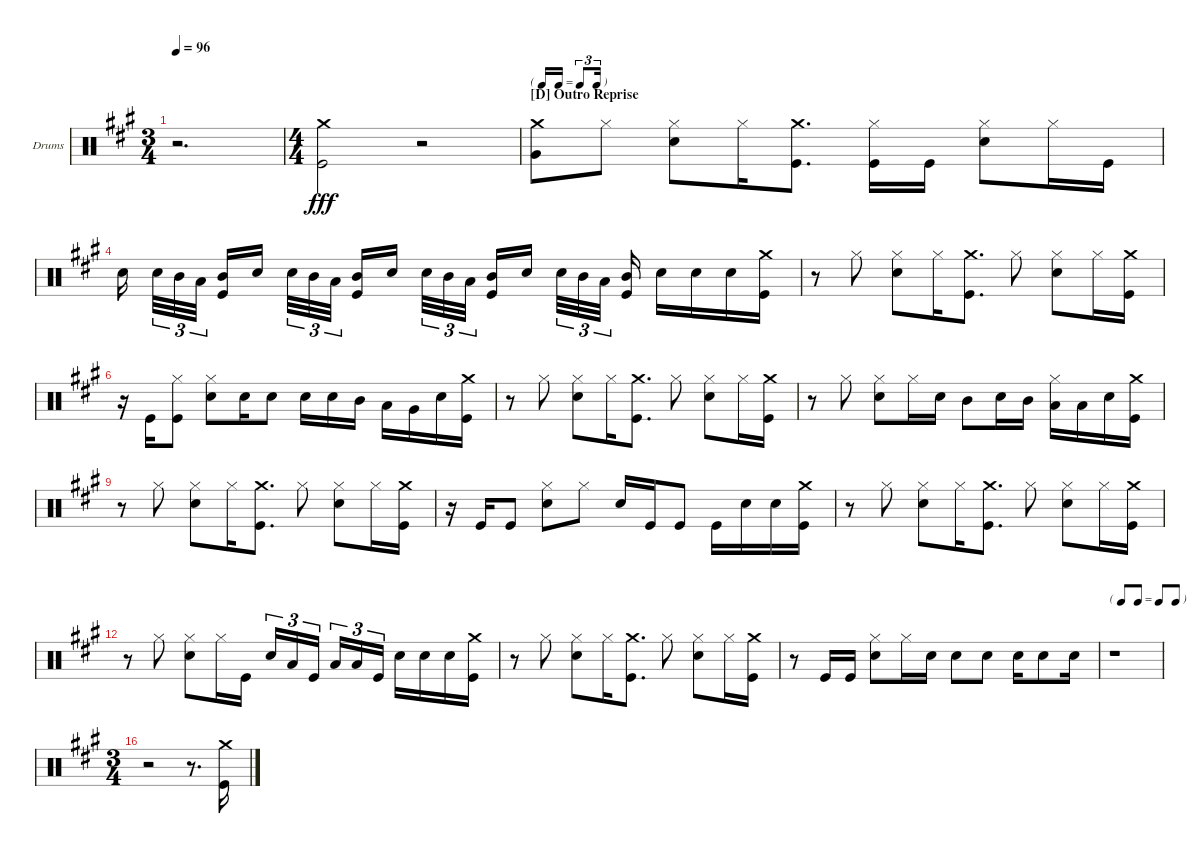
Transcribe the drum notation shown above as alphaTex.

\bracketExtendMode nobrackets
\firstSystemTrackNameOrientation horizontal
\otherSystemsTrackNameOrientation horizontal
\defaultBarNumberDisplay FirstOfSystem
\track ("Drumkit" "Drums") {instrument percussion}
\staff {score}
\articulation defaults
\ts (3 4)
\tempo 96
\clef neutral
\ks a
r.2{d dy fff} |
\ts (4 4)
("Kick (hit)" "Crash medium (hit)").2 r.2 |
\tf triplet16th
\section ("D" "Outro Reprise")
("Very Low Tom (hit)" "Crash medium (hit)").8 "Hi-Hat (closed)".8 ("Snare (hit) 2" "Hi-Hat (closed)").8 "Hi-Hat (closed)".16 ("Crash medium (hit)" "Kick (hit)").8{d} ("Kick (hit)" "Hi-Hat (closed)").16 "Kick (hit)".16 ("Snare (hit) 2" "Hi-Hat (closed)").8 "Hi-Hat (closed)".16 "Kick (hit)".16 |
"Snare (hit) 2".16 "Snare (hit) 2".32{tu (3 2)} "Mid Tom (hit)".32{tu (3 2)} "Low Tom (hit)".32{tu (3 2)} ("Kick (hit)" "Mid Tom (hit)").16 "Snare (hit) 2".16 "Snare (hit) 2".32{tu (3 2)} "Mid Tom (hit)".32{tu (3 2)} "Low Tom (hit)".32{tu (3 2)} ("Mid Tom (hit)" "Kick (hit)").16 "Snare (hit) 2".16 "Snare (hit) 2".32{tu (3 2)} "Mid Tom (hit)".32{tu (3 2)} "Low Tom (hit)".32{tu (3 2)} ("Kick (hit)" "Mid Tom (hit)").16 "Snare (hit) 2".16 "Snare (hit) 2".32{tu (3 2)} "Mid Tom (hit)".32{tu (3 2)} "Low Tom (hit)".32{tu (3 2)} ("Mid Tom (hit)" "Kick (hit)").16 "Snare (hit) 2".16 "Snare (hit) 2".16 "Snare (hit) 2".16 ("Crash medium (hit)" "Kick (hit)").16 |
r.8 "Hi-Hat (closed)".8 ("Snare (hit) 2" "Hi-Hat (closed)").8 "Hi-Hat (closed)".16 ("Kick (hit)" "Crash medium (hit)").8{d} "Hi-Hat (closed)".8 ("Snare (hit) 2" "Hi-Hat (closed)").8 "Hi-Hat (closed)".16 ("Kick (hit)" "Crash medium (hit)").16 |
r.16 "Kick (hit)".16 ("Hi-Hat (closed)" "Kick (hit)").8 ("Hi-Hat (closed)" "Snare (hit) 2").8 "Snare (hit) 2".16 "Snare (hit) 2".8 "Snare (hit) 2".16 "Snare (hit) 2".16 "Mid Tom (hit)".16 "Low Tom (hit)".16 "Very Low Tom (hit)".16 "Snare (hit) 2".16 ("Crash medium (hit)" "Kick (hit)").16 |
r.8 "Hi-Hat (closed)".8 ("Snare (hit) 2" "Hi-Hat (closed)").8 "Hi-Hat (closed)".16 ("Kick (hit)" "Crash medium (hit)").8{d} "Hi-Hat (closed)".8 ("Snare (hit) 2" "Hi-Hat (closed)").8 "Hi-Hat (closed)".16 ("Kick (hit)" "Crash medium (hit)").16 |
r.8 "Hi-Hat (closed)".8 ("Snare (hit) 2" "Hi-Hat (closed)").8 "Hi-Hat (closed)".16 "Snare (hit) 2".16 "Mid Tom (hit)".8 "Snare (hit) 2".16 "Mid Tom (hit)".16 ("Hi-Hat (closed)" "Low Tom (hit)").16 "Low Tom (hit)".16 "Snare (hit) 2".16 ("Crash medium (hit)" "Kick (hit)").16 |
r.8 "Hi-Hat (closed)".8 ("Snare (hit) 2" "Hi-Hat (closed)").8 "Hi-Hat (closed)".16 ("Crash medium (hit)" "Kick (hit)").8{d} "Hi-Hat (closed)".8 ("Snare (hit) 2" "Hi-Hat (closed)").8 "Hi-Hat (closed)".16 ("Kick (hit)" "Crash medium (hit)").16 |
r.16 "Kick (hit)".16 "Kick (hit)".8 ("Snare (hit) 2" "Hi-Hat (closed)").8 "Hi-Hat (closed)".8 "Snare (hit) 2".16 "Kick (hit)".16 "Kick (hit)".8 "Kick (hit)".16 "Snare (hit) 2".16 "Snare (hit) 2".16 ("Crash medium (hit)" "Kick (hit)").16 |
r.8 "Hi-Hat (closed)".8 ("Snare (hit) 2" "Hi-Hat (closed)").8 "Hi-Hat (closed)".16 ("Kick (hit)" "Crash medium (hit)").8{d} "Hi-Hat (closed)".8 ("Snare (hit) 2" "Hi-Hat (closed)").8 "Hi-Hat (closed)".16 ("Kick (hit)" "Crash medium (hit)").16 |
r.8 "Hi-Hat (closed)".8 ("Snare (hit) 2" "Hi-Hat (closed)").8 "Hi-Hat (closed)".16 "Kick (hit)".16 "Snare (hit) 2".16{tu (3 2)} "Low Tom (hit)".16{tu (3 2)} "Kick (hit)".16{tu (3 2)} "Low Tom (hit)".16{tu (3 2)} "Low Tom (hit)".16{tu (3 2)} "Kick (hit)".16{tu (3 2)} "Snare (hit) 2".16 "Snare (hit) 2".16 "Snare (hit) 2".16 ("Crash medium (hit)" "Kick (hit)").16 |
r.8 "Hi-Hat (closed)".8 ("Snare (hit) 2" "Hi-Hat (closed)").8 "Hi-Hat (closed)".16 ("Kick (hit)" "Crash medium (hit)").8{d} "Hi-Hat (closed)".8 ("Snare (hit) 2" "Hi-Hat (closed)").8 "Hi-Hat (closed)".16 ("Kick (hit)" "Crash medium (hit)").16 |
r.8 "Kick (hit)".16 "Kick (hit)".16 ("Snare (hit) 2" "Hi-Hat (closed)").8 "Hi-Hat (closed)".16 "Snare (hit) 2".16 "Snare (hit) 2".8 "Snare (hit) 2".8 "Snare (hit) 2".16 "Snare (hit) 2".8 "Snare (hit) 2".16 |
\tf none
r.1 |
\ts (3 4)
r.2 r.8{d} ("Kick (hit)" "Crash medium (hit)").16
